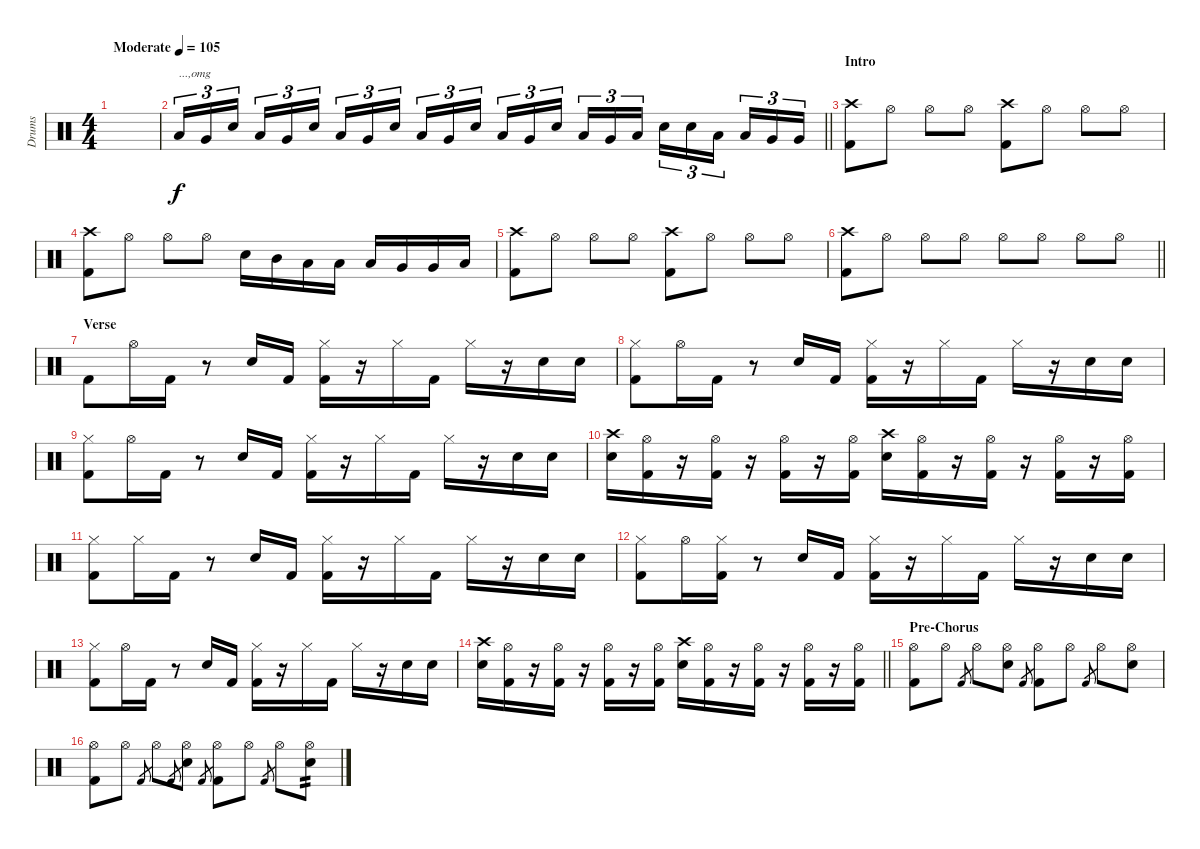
\track ("Drums" "Drums") {instrument percussion}
\staff {score}
\articulation defaults
\ts (4 4)
\tempo (105 "Moderate")
\clef neutral
\ks c
|
\barLineRight lightlight "Low Floor Tom (hit)".16{tu (3 2) txt "...,omg"} "Very Low Tom (hit)".16{tu (3 2)} "Electric Snare (hit)".16{tu (3 2) beam splitsecondary} "Low Floor Tom (hit)".16{tu (3 2)} "Very Low Tom (hit)".16{tu (3 2)} "Electric Snare (hit)".16{tu (3 2)} "Low Floor Tom (hit)".16{tu (3 2)} "Very Low Tom (hit)".16{tu (3 2)} "Electric Snare (hit)".16{tu (3 2) beam splitsecondary} "Low Floor Tom (hit)".16{tu (3 2)} "Very Low Tom (hit)".16{tu (3 2)} "Electric Snare (hit)".16{tu (3 2)} "Low Floor Tom (hit)".16{tu (3 2)} "Very Low Tom (hit)".16{tu (3 2)} "Electric Snare (hit)".16{tu (3 2) beam splitsecondary} "Low Floor Tom (hit)".16{tu (3 2)} "Very Low Tom (hit)".16{tu (3 2)} "Low Tom (hit)".16{tu (3 2)} "Electric Snare (hit)".16{tu (3 2)} "Electric Snare (hit)".16{tu (3 2)} "Low Tom (hit)".16{tu (3 2) beam splitsecondary} "Low Tom (hit)".16{tu (3 2)} "Very Low Tom (hit)".16{tu (3 2)} "Very Low Tom (hit)".16{tu (3 2)}
|
\section ("" "Intro")
("Crash high (hit)" "Kick (hit) 2").8 "Hi-Hat (open)".8 "Hi-Hat (open)".8 "Hi-Hat (open)".8 ("Crash high (hit)" "Kick (hit) 2").8 "Hi-Hat (open)".8 "Hi-Hat (open)".8 "Hi-Hat (open)".8 |
("Crash high (hit)" "Kick (hit) 2").8 "Hi-Hat (open)".8 "Hi-Hat (open)".8 "Hi-Hat (open)".8 "Electric Snare (hit)".16 "Mid Tom (hit)".16 "Low Tom (hit)".16 "Low Tom (hit)".16 "Low Tom (hit)".16 "Very Low Tom (hit)".16 "Very Low Tom (hit)".16 "Low Floor Tom (hit)".16 |
("Crash high (hit)" "Kick (hit) 2").8 "Hi-Hat (open)".8 "Hi-Hat (open)".8 "Hi-Hat (open)".8 ("Crash high (hit)" "Kick (hit) 2").8 "Hi-Hat (open)".8 "Hi-Hat (open)".8 "Hi-Hat (open)".8 |
\barLineRight lightlight
("Crash high (hit)" "Kick (hit) 2").8 "Hi-Hat (open)".8 "Hi-Hat (open)".8 "Hi-Hat (open)".8 "Hi-Hat (open)".8 "Hi-Hat (open)".8 "Hi-Hat (open)".8 "Hi-Hat (open)".8 |
\section ("" "Verse")
"Kick (hit) 2".8 "Hi-Hat (open)".16 "Kick (hit) 2".16 r.8 "Electric Snare (hit)".16 "Kick (hit) 2".16 ("Hi-Hat (closed)" "Kick (hit) 2").16 r.16 "Hi-Hat (closed)".16 "Kick (hit) 2".16 "Hi-Hat (closed)".16 r.16 "Electric Snare (hit)".16 "Electric Snare (hit)".16 |
("Hi-Hat (closed)" "Kick (hit) 2").8 "Hi-Hat (open)".16 "Kick (hit) 2".16 r.8 "Electric Snare (hit)".16 "Kick (hit) 2".16 ("Hi-Hat (closed)" "Kick (hit) 2").16 r.16 "Hi-Hat (closed)".16 "Kick (hit) 2".16 "Hi-Hat (closed)".16 r.16 "Electric Snare (hit)".16 "Electric Snare (hit)".16 |
("Hi-Hat (closed)" "Kick (hit) 2").8 "Hi-Hat (open)".16 "Kick (hit) 2".16 r.8 "Electric Snare (hit)".16 "Kick (hit) 2".16 ("Hi-Hat (closed)" "Kick (hit) 2").16 r.16 "Hi-Hat (closed)".16 "Kick (hit) 2".16 "Hi-Hat (closed)".16 r.16 "Electric Snare (hit)".16 "Electric Snare (hit)".16 |
("Crash high (hit)" "Electric Snare (hit)").16 ("Hi-Hat (open)" "Kick (hit) 2").16 r.16 ("Kick (hit) 2" "Hi-Hat (open)").16 r.16 ("Kick (hit) 2" "Hi-Hat (open)").16 r.16 ("Hi-Hat (open)" "Kick (hit) 2").16 ("Crash high (hit)" "Electric Snare (hit)").16 ("Hi-Hat (open)" "Kick (hit) 2").16 r.16 ("Kick (hit) 2" "Hi-Hat (open)").16 r.16 ("Kick (hit) 2" "Hi-Hat (open)").16 r.16 ("Hi-Hat (open)" "Kick (hit) 2").16 |
("Hi-Hat (closed)" "Kick (hit) 2").8 "Hi-Hat (closed)".16 "Kick (hit) 2".16 r.8 "Electric Snare (hit)".16 "Kick (hit) 2".16 ("Hi-Hat (closed)" "Kick (hit) 2").16 r.16 "Hi-Hat (closed)".16 "Kick (hit) 2".16 "Hi-Hat (closed)".16 r.16 "Electric Snare (hit)".16 "Electric Snare (hit)".16 |
("Hi-Hat (closed)" "Kick (hit) 2").8 "Hi-Hat (open)".16 ("Hi-Hat (closed)" "Kick (hit) 2").16 r.8 "Electric Snare (hit)".16 "Kick (hit) 2".16 ("Hi-Hat (closed)" "Kick (hit) 2").16 r.16 "Hi-Hat (closed)".16 "Kick (hit) 2".16 "Hi-Hat (closed)".16 r.16 "Electric Snare (hit)".16 "Electric Snare (hit)".16 |
("Hi-Hat (closed)" "Kick (hit) 2").8 "Hi-Hat (open)".16 "Kick (hit) 2".16 r.8 "Electric Snare (hit)".16 "Kick (hit) 2".16 ("Hi-Hat (closed)" "Kick (hit) 2").16 r.16 "Hi-Hat (closed)".16 "Kick (hit) 2".16 "Hi-Hat (closed)".16 r.16 "Electric Snare (hit)".16 "Electric Snare (hit)".16 |
\barLineRight lightlight
("Crash high (hit)" "Electric Snare (hit)").16 ("Hi-Hat (open)" "Kick (hit) 2").16 r.16 ("Kick (hit) 2" "Hi-Hat (open)").16 r.16 ("Kick (hit) 2" "Hi-Hat (open)").16 r.16 ("Hi-Hat (open)" "Kick (hit) 2").16 ("Crash high (hit)" "Electric Snare (hit)").16 ("Hi-Hat (open)" "Kick (hit) 2").16 r.16 ("Kick (hit) 2" "Hi-Hat (open)").16 r.16 ("Kick (hit) 2" "Hi-Hat (open)").16 r.16 ("Hi-Hat (open)" "Kick (hit) 2").16 |
\section ("" "Pre-Chorus")
("Kick (hit) 2" "Hi-Hat (open)").8 "Hi-Hat (open)".8 "Kick (hit) 2".8{gr} "Hi-Hat (open)".8 ("Electric Snare (hit)" "Hi-Hat (open)").8 "Kick (hit) 2".8{gr} ("Kick (hit) 2" "Hi-Hat (open)").8 "Hi-Hat (open)".8 "Kick (hit) 2".8{gr} "Hi-Hat (open)".8 ("Electric Snare (hit)" "Hi-Hat (open)").8 |
("Kick (hit) 2" "Hi-Hat (open)").8 "Hi-Hat (open)".8 "Kick (hit) 2".8{gr} "Hi-Hat (open)".8 "Kick (hit) 2".8{gr} ("Electric Snare (hit)" "Hi-Hat (open)").8 "Kick (hit) 2".8{gr} ("Kick (hit) 2" "Hi-Hat (open)").8 "Hi-Hat (open)".8 "Kick (hit) 2".8{gr} "Hi-Hat (open)".8 ("Electric Snare (hit)" "Hi-Hat (open)").8{tp 2}
